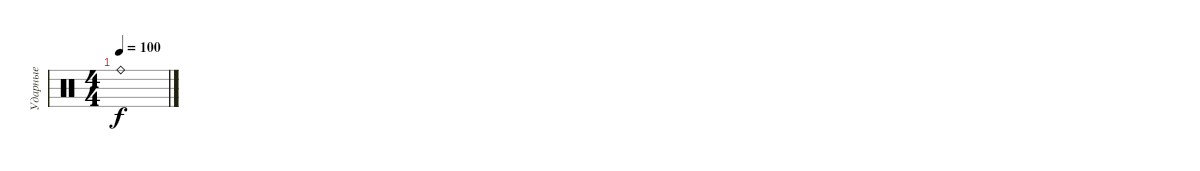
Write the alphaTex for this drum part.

\track ("Ударные" "Ударные") {instrument percussion}
\staff {score}
\articulation defaults
\ts (4 4)
\tempo 100
\clef neutral
\ks c "Ride (bell)".1{dy f}
